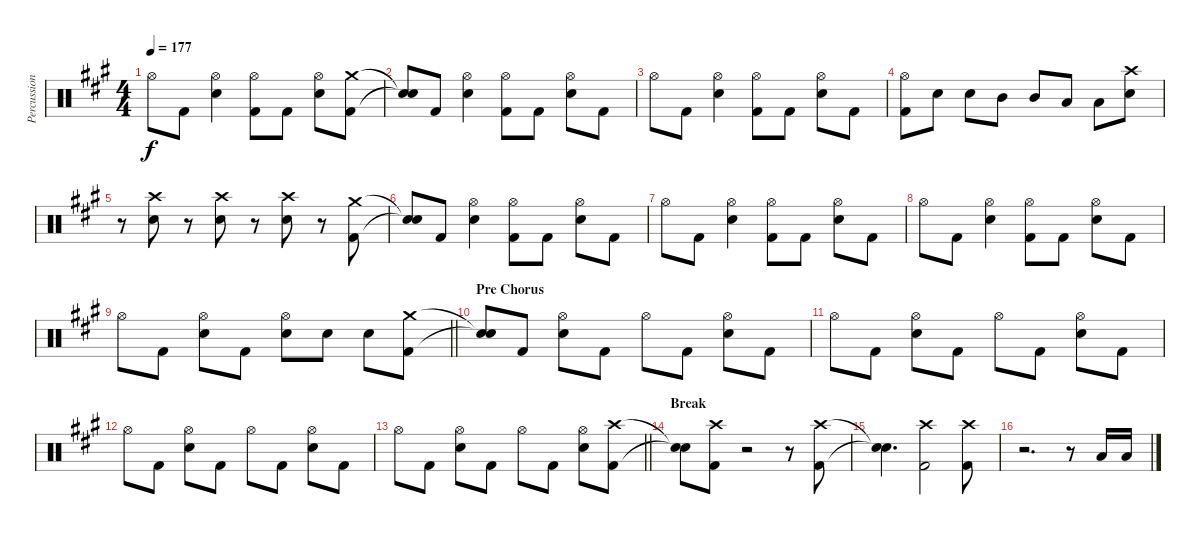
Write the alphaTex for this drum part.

\track ("Percussion" "Percussion") {instrument percussion}
\staff {score}
\articulation defaults
\ts (4 4)
\tempo 177
\clef neutral
\ks a "Hi-Hat (open)".8{dy f} "Kick (hit) 2".8
("Hi-Hat (open)" "Snare (hit) 2").4 ("Hi-Hat (open)" "Kick (hit) 2").8 "Kick (hit) 2".8 ("Hi-Hat (open)" "Snare (hit) 2").8 ("Kick (hit) 2" "Crash medium (hit)").8 |
("Snare (hit)"{t} "Snare (hit)"{t}).8 "Kick (hit) 2".8 ("Hi-Hat (open)" "Snare (hit) 2").4 ("Hi-Hat (open)" "Kick (hit) 2").8 "Kick (hit) 2".8 ("Hi-Hat (open)" "Snare (hit) 2").8 "Kick (hit) 2".8 |
"Hi-Hat (open)".8 "Kick (hit) 2".8 ("Hi-Hat (open)" "Snare (hit) 2").4 ("Hi-Hat (open)" "Kick (hit) 2").8 "Kick (hit) 2".8 ("Hi-Hat (open)" "Snare (hit) 2").8 "Kick (hit) 2".8 |
("Hi-Hat (open)" "Kick (hit) 2").8 "Snare (hit) 2".8 "Snare (hit) 2".8 "Mid Tom (hit)".8 "Mid Tom (hit)".8 "Low Tom (hit)".8 "Low Tom (hit)".8 ("Snare (hit) 2" "Crash high (hit)").8 |
r.8{volume 0} ("Snare (hit) 2" "Crash high (hit)").8{volume 16} r.8{volume 0} ("Snare (hit) 2" "Crash high (hit)").8{volume 16} r.8{volume 0} ("Snare (hit) 2" "Crash high (hit)").8{volume 16} r.8{volume 0} ("Kick (hit) 2" "Crash medium (hit)").8{volume 16} |
("Snare (hit)"{t} "Snare (hit)"{t}).8 "Kick (hit) 2".8 ("Hi-Hat (open)" "Snare (hit) 2").4 ("Hi-Hat (open)" "Kick (hit) 2").8 "Kick (hit) 2".8 ("Hi-Hat (open)" "Snare (hit) 2").8 "Kick (hit) 2".8 |
"Hi-Hat (open)".8 "Kick (hit) 2".8 ("Hi-Hat (open)" "Snare (hit) 2").4 ("Hi-Hat (open)" "Kick (hit) 2").8 "Kick (hit) 2".8 ("Hi-Hat (open)" "Snare (hit) 2").8 "Kick (hit) 2".8 |
"Hi-Hat (open)".8 "Kick (hit) 2".8 ("Hi-Hat (open)" "Snare (hit) 2").4 ("Hi-Hat (open)" "Kick (hit) 2").8 "Kick (hit) 2".8 ("Hi-Hat (open)" "Snare (hit) 2").8 "Kick (hit) 2".8 |
\barLineRight lightlight "Hi-Hat (open)".8 "Kick (hit) 2".8
("Hi-Hat (open)" "Snare (hit) 2").8 "Kick (hit) 2".8 ("Hi-Hat (open)" "Snare (hit) 2").8 "Snare (hit) 2".8 "Snare (hit) 2".8 ("Kick (hit) 2" "Crash medium (hit)").8 |
\section ("" "Pre Chorus")
("Snare (hit)"{t} "Snare (hit)"{t}).8 "Kick (hit) 2".8 ("Hi-Hat (open)" "Snare (hit) 2").8 "Kick (hit) 2".8 "Hi-Hat (open)".8 "Kick (hit) 2".8 ("Hi-Hat (open)" "Snare (hit) 2").8 "Kick (hit) 2".8 |
"Hi-Hat (open)".8 "Kick (hit) 2".8 ("Hi-Hat (open)" "Snare (hit) 2").8 "Kick (hit) 2".8 "Hi-Hat (open)".8 "Kick (hit) 2".8 ("Hi-Hat (open)" "Snare (hit) 2").8 "Kick (hit) 2".8 |
"Hi-Hat (open)".8 "Kick (hit) 2".8 ("Hi-Hat (open)" "Snare (hit) 2").8 "Kick (hit) 2".8 "Hi-Hat (open)".8 "Kick (hit) 2".8 ("Hi-Hat (open)" "Snare (hit) 2").8 "Kick (hit) 2".8 |
\barLineRight lightlight "Hi-Hat (open)".8 "Kick (hit) 2".8
("Hi-Hat (open)" "Snare (hit) 2").8 "Kick (hit) 2".8 "Hi-Hat (open)".8 "Kick (hit) 2".8 ("Hi-Hat (open)" "Snare (hit) 2").8 ("Kick (hit) 2" "Crash high (hit)").8 |
\section ("" "Break")
("Snare (hit)"{t} "Snare (hit)"{t}).8 ("Kick (hit) 2" "Crash high (hit)").8 r.2{volume 0} r.8 ("Kick (hit) 2" "Crash high (hit)").8{volume 16} |
("Snare (hit)"{t} "Snare (hit)"{t}).4{d} ("Kick (hit) 2" "Crash high (hit)").2 ("Kick (hit) 2" "Crash high (hit)").8 |
r.2{d} r.8 "Low Tom (hit)".16 "Low Tom (hit)".16
